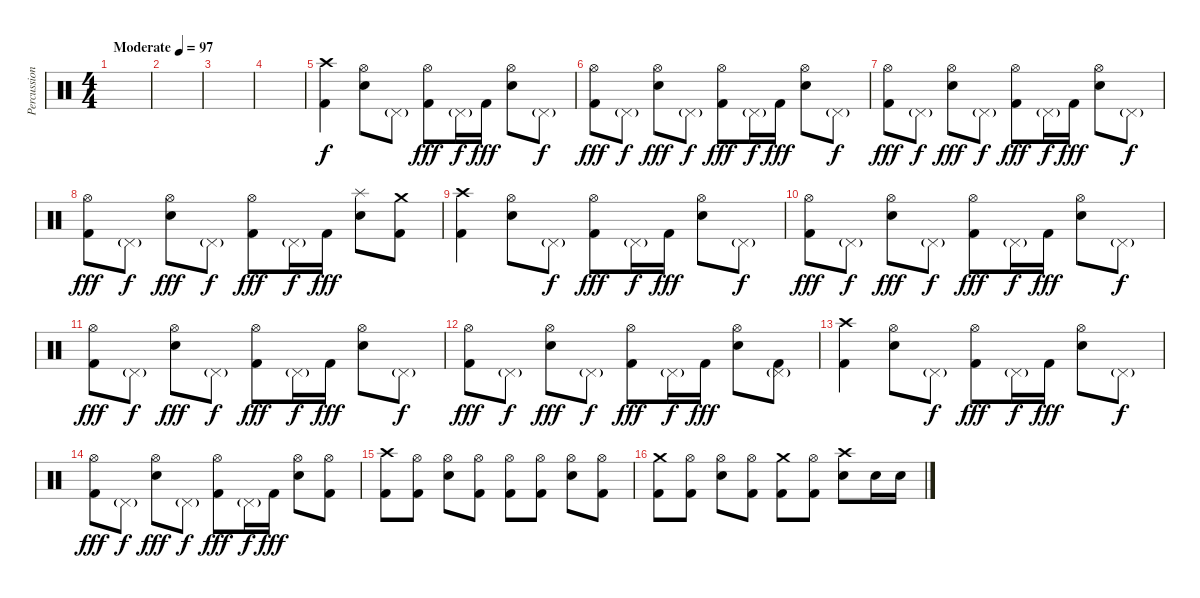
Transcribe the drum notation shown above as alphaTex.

\track ("Percussion" "Percussion") {instrument percussion}
\staff {score}
\articulation defaults
\ts (4 4)
\tempo (97 "Moderate")
\clef neutral
\ks c
|
|
|
|
("Crash high (hit)" "Kick (hit) 2").4 ("Hi-Hat (open)" "Electric Snare (hit)").8 "Pedal Hi-Hat (hit)"{g}.8{dy f} ("Hi-Hat (open)" "Kick (hit) 2").8{dy fff} "Pedal Hi-Hat (hit)"{g}.16{dy f} "Kick (hit) 2".16{dy fff} ("Hi-Hat (open)" "Electric Snare (hit)").8 "Pedal Hi-Hat (hit)"{g}.8{dy f} |
("Hi-Hat (open)" "Kick (hit) 2").8{dy fff} "Pedal Hi-Hat (hit)"{g}.8{dy f} ("Hi-Hat (open)" "Electric Snare (hit)").8{dy fff} "Pedal Hi-Hat (hit)"{g}.8{dy f} ("Hi-Hat (open)" "Kick (hit) 2").8{dy fff} "Pedal Hi-Hat (hit)"{g}.16{dy f} "Kick (hit) 2".16{dy fff} ("Hi-Hat (open)" "Electric Snare (hit)").8 "Pedal Hi-Hat (hit)"{g}.8{dy f} |
("Hi-Hat (open)" "Kick (hit) 2").8{dy fff} "Pedal Hi-Hat (hit)"{g}.8{dy f} ("Hi-Hat (open)" "Electric Snare (hit)").8{dy fff} "Pedal Hi-Hat (hit)"{g}.8{dy f} ("Hi-Hat (open)" "Kick (hit) 2").8{dy fff} "Pedal Hi-Hat (hit)"{g}.16{dy f} "Kick (hit) 2".16{dy fff} ("Hi-Hat (open)" "Electric Snare (hit)").8 "Pedal Hi-Hat (hit)"{g}.8{dy f} |
("Hi-Hat (open)" "Kick (hit) 2").8{dy fff} "Pedal Hi-Hat (hit)"{g}.8{dy f} ("Hi-Hat (open)" "Electric Snare (hit)").8{dy fff} "Pedal Hi-Hat (hit)"{g}.8{dy f} ("Hi-Hat (open)" "Kick (hit) 2").8{dy fff} "Pedal Hi-Hat (hit)"{g}.16{dy f} "Kick (hit) 2".16{dy fff} ("Splash (hit)" "Electric Snare (hit)").8 ("Crash medium (hit)" "Kick (hit) 2").8 |
("Crash high (hit)" "Kick (hit) 2").4 ("Hi-Hat (open)" "Electric Snare (hit)").8 "Pedal Hi-Hat (hit)"{g}.8{dy f} ("Hi-Hat (open)" "Kick (hit) 2").8{dy fff} "Pedal Hi-Hat (hit)"{g}.16{dy f} "Kick (hit) 2".16{dy fff} ("Hi-Hat (open)" "Electric Snare (hit)").8 "Pedal Hi-Hat (hit)"{g}.8{dy f} |
("Hi-Hat (open)" "Kick (hit) 2").8{dy fff} "Pedal Hi-Hat (hit)"{g}.8{dy f} ("Hi-Hat (open)" "Electric Snare (hit)").8{dy fff} "Pedal Hi-Hat (hit)"{g}.8{dy f} ("Hi-Hat (open)" "Kick (hit) 2").8{dy fff} "Pedal Hi-Hat (hit)"{g}.16{dy f} "Kick (hit) 2".16{dy fff} ("Hi-Hat (open)" "Electric Snare (hit)").8 "Pedal Hi-Hat (hit)"{g}.8{dy f} |
("Hi-Hat (open)" "Kick (hit) 2").8{dy fff} "Pedal Hi-Hat (hit)"{g}.8{dy f} ("Hi-Hat (open)" "Electric Snare (hit)").8{dy fff} "Pedal Hi-Hat (hit)"{g}.8{dy f} ("Hi-Hat (open)" "Kick (hit) 2").8{dy fff} "Pedal Hi-Hat (hit)"{g}.16{dy f} "Kick (hit) 2".16{dy fff} ("Hi-Hat (open)" "Electric Snare (hit)").8 "Pedal Hi-Hat (hit)"{g}.8{dy f} |
("Hi-Hat (open)" "Kick (hit) 2").8{dy fff} "Pedal Hi-Hat (hit)"{g}.8{dy f} ("Hi-Hat (open)" "Electric Snare (hit)").8{dy fff} "Pedal Hi-Hat (hit)"{g}.8{dy f} ("Hi-Hat (open)" "Kick (hit) 2").8{dy fff} "Pedal Hi-Hat (hit)"{g}.16{dy f} "Kick (hit) 2".16{dy fff} ("Hi-Hat (open)" "Electric Snare (hit)").8 ("Pedal Hi-Hat (hit)"{g} "Kick (hit) 2").8 |
("Crash high (hit)" "Kick (hit) 2").4 ("Hi-Hat (open)" "Electric Snare (hit)").8 "Pedal Hi-Hat (hit)"{g}.8{dy f} ("Hi-Hat (open)" "Kick (hit) 2").8{dy fff} "Pedal Hi-Hat (hit)"{g}.16{dy f} "Kick (hit) 2".16{dy fff} ("Hi-Hat (open)" "Electric Snare (hit)").8 "Pedal Hi-Hat (hit)"{g}.8{dy f} |
("Hi-Hat (open)" "Kick (hit) 2").8{dy fff} "Pedal Hi-Hat (hit)"{g}.8{dy f} ("Hi-Hat (open)" "Electric Snare (hit)").8{dy fff} "Pedal Hi-Hat (hit)"{g}.8{dy f} ("Hi-Hat (open)" "Kick (hit) 2").8{dy fff} "Pedal Hi-Hat (hit)"{g}.16{dy f} "Kick (hit) 2".16{dy fff} ("Hi-Hat (open)" "Electric Snare (hit)").8 ("Hi-Hat (open)" "Kick (hit) 2").8 |
("Crash high (hit)" "Kick (hit) 2").8 ("Hi-Hat (open)" "Kick (hit) 2").8 ("Hi-Hat (open)" "Electric Snare (hit)").8 ("Hi-Hat (open)" "Kick (hit) 2").8 ("Hi-Hat (open)" "Kick (hit) 2").8 ("Hi-Hat (open)" "Kick (hit) 2").8 ("Hi-Hat (open)" "Electric Snare (hit)").8 ("Hi-Hat (open)" "Kick (hit) 2").8 |
("Crash medium (hit)" "Kick (hit) 2").8 ("Hi-Hat (open)" "Kick (hit) 2").8 ("Hi-Hat (open)" "Electric Snare (hit)").8 ("Hi-Hat (open)" "Kick (hit) 2").8 ("Crash medium (hit)" "Kick (hit) 2").8 ("Hi-Hat (open)" "Kick (hit) 2").8 ("Crash high (hit)" "Electric Snare (hit)").8 "Electric Snare (hit)".16 "Electric Snare (hit)".16
